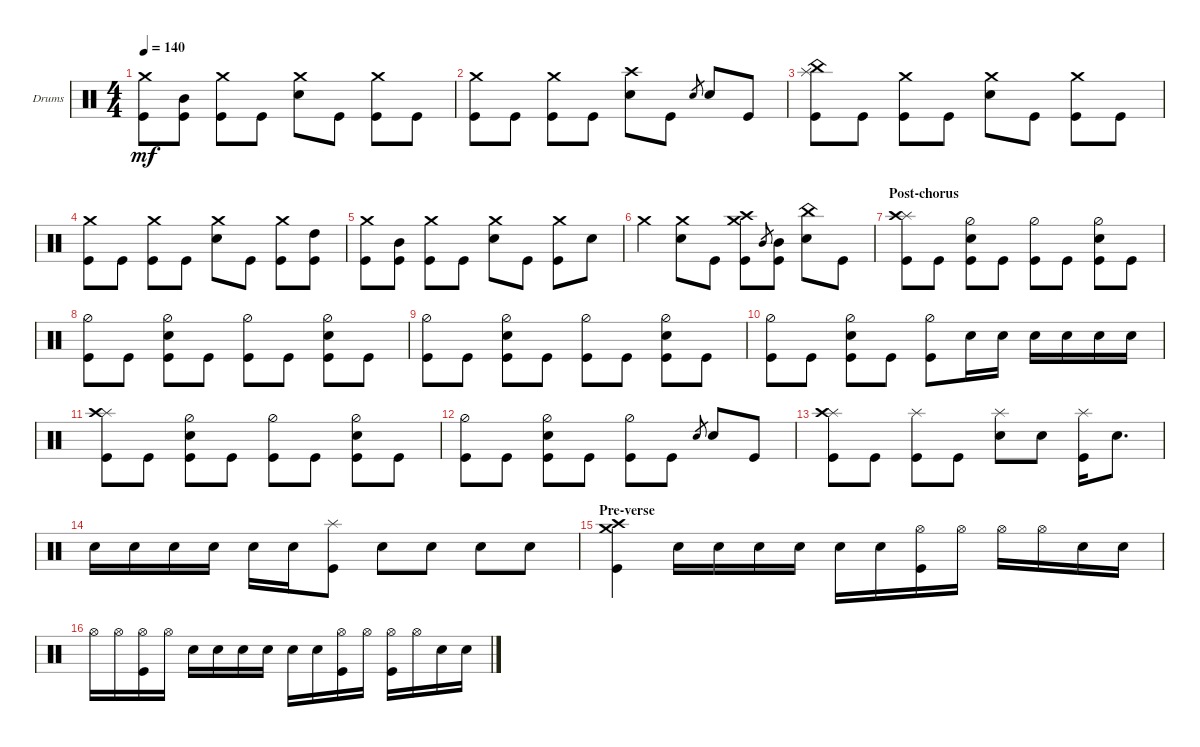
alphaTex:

\bracketExtendMode groupsimilarinstruments
\firstSystemTrackNameOrientation horizontal
\otherSystemsTrackNameOrientation horizontal
\track ("Drumkit" "Drums") {instrument percussion}
\staff {score}
\articulation defaults
\ts (4 4)
\tempo 140
\clef neutral
\ks c
("Kick (hit)" "Crash medium (hit)").8{dy mf} ("Kick (hit)" "Mid Tom (hit)").8 ("Kick (hit)" "Crash medium (hit)").8 "Kick (hit)".8 ("Snare (hit) 2" "Crash medium (hit)").8 "Kick (hit)".8 ("Kick (hit)" "Crash medium (hit)").8 "Kick (hit)".8 |
("Kick (hit)" "Crash medium (hit)").8 "Kick (hit)".8 ("Kick (hit)" "Crash medium (hit)").8 "Kick (hit)".8 ("Snare (hit) 2" "Crash high (hit)").8 "Kick (hit)".8 "Snare (hit) 2".8{gr} "Snare (hit) 2".8 "Kick (hit)".8 |
("China (hit)" "Splash (hit)" "Kick (hit)").8 "Kick (hit)".8 ("Kick (hit)" "Crash medium (hit)").8 "Kick (hit)".8 ("Snare (hit) 2" "Crash medium (hit)").8 "Kick (hit)".8 ("Kick (hit)" "Crash medium (hit)").8 "Kick (hit)".8 |
("Kick (hit)" "Crash medium (hit)").8 "Kick (hit)".8 ("Kick (hit)" "Crash medium (hit)").8 "Kick (hit)".8 ("Snare (hit) 2" "Crash medium (hit)").8 "Kick (hit)".8 ("Kick (hit)" "Crash medium (hit)").8 ("Kick (hit)" "High Tom (hit)").8 |
("Kick (hit)" "Crash medium (hit)").8 ("Kick (hit)" "Mid Tom (hit)").8 ("Kick (hit)" "Crash medium (hit)").8 "Kick (hit)".8 ("Snare (hit) 2" "Crash medium (hit)").8 "Kick (hit)".8 ("Kick (hit)" "Crash medium (hit)").8 "Snare (hit) 2".8 |
"Crash medium (hit)".4 ("Crash medium (hit)" "Snare (hit) 2").8 "Kick (hit)".8 ("Crash high (hit)" "Kick (hit)" "Crash medium (hit)").8 "Mid Tom (hit)".8{gr} ("Kick (hit)" "Mid Tom (hit)").8 ("Snare (hit) 2" "China (hit)").8 "Kick (hit)".8 |
\section ("" "Post-chorus")
("Kick (hit)" "Splash (hit)" "Crash high (hit)").8 "Kick (hit)".8 ("Hi-Hat (half)" "Snare (hit) 2" "Kick (hit)").8 "Kick (hit)".8 ("Kick (hit)" "Hi-Hat (half)").8 "Kick (hit)".8 ("Hi-Hat (half)" "Snare (hit) 2" "Kick (hit)").8 "Kick (hit)".8 |
("Kick (hit)" "Hi-Hat (half)").8 "Kick (hit)".8 ("Hi-Hat (half)" "Snare (hit) 2" "Kick (hit)").8 "Kick (hit)".8 ("Kick (hit)" "Hi-Hat (half)").8 "Kick (hit)".8 ("Hi-Hat (half)" "Snare (hit) 2" "Kick (hit)").8 "Kick (hit)".8 |
("Kick (hit)" "Hi-Hat (half)").8 "Kick (hit)".8 ("Hi-Hat (half)" "Snare (hit) 2" "Kick (hit)").8 "Kick (hit)".8 ("Kick (hit)" "Hi-Hat (half)").8 "Kick (hit)".8 ("Hi-Hat (half)" "Snare (hit) 2" "Kick (hit)").8 "Kick (hit)".8 |
("Kick (hit)" "Hi-Hat (half)").8 "Kick (hit)".8 ("Hi-Hat (half)" "Snare (hit) 2" "Kick (hit)").8 "Kick (hit)".8 ("Kick (hit)" "Hi-Hat (half)").8 "Snare (hit) 2".16 "Snare (hit) 2".16 "Snare (hit) 2".16 "Snare (hit) 2".16 "Snare (hit) 2".16 "Snare (hit) 2".16 |
("Kick (hit)" "Splash (hit)" "Crash high (hit)").8 "Kick (hit)".8 ("Hi-Hat (half)" "Snare (hit) 2" "Kick (hit)").8 "Kick (hit)".8 ("Kick (hit)" "Hi-Hat (half)").8 "Kick (hit)".8 ("Hi-Hat (half)" "Snare (hit) 2" "Kick (hit)").8 "Kick (hit)".8 |
("Kick (hit)" "Hi-Hat (half)").8 "Kick (hit)".8 ("Hi-Hat (half)" "Snare (hit) 2" "Kick (hit)").8 "Kick (hit)".8 ("Kick (hit)" "Hi-Hat (half)").8 "Kick (hit)".8 "Snare (hit) 2".8{gr} "Snare (hit) 2".8 "Kick (hit)".8 |
("Kick (hit)" "Splash (hit)" "Crash high (hit)").8 "Kick (hit)".8 ("Kick (hit)" "Splash (hit)").8 "Kick (hit)".8 ("Splash (hit)" "Snare (hit) 2").8 "Snare (hit) 2".8 ("Kick (hit)" "Splash (hit)").16 "Snare (hit) 2".8{d} |
"Snare (hit) 2".16 "Snare (hit) 2".16 "Snare (hit) 2".16 "Snare (hit) 2".16 "Snare (hit) 2".16 "Snare (hit) 2".16 ("Kick (hit)" "Splash (hit)").8 "Snare (hit) 2".8 "Snare (hit) 2".8 "Snare (hit) 2".8 "Snare (hit) 2".8 |
\section ("" "Pre-verse")
("Kick (hit)" "Crash high (hit)" "Crash medium (hit)").4 "Snare (hit) 2".16 "Snare (hit) 2".16 "Snare (hit) 2".16 "Snare (hit) 2".16 "Snare (hit) 2".16 "Snare (hit) 2".16 ("Kick (hit)" "Hi-Hat (open)").16 "Hi-Hat (open)".16 "Hi-Hat (open)".16 "Hi-Hat (open)".16 "Snare (hit) 2".16 "Snare (hit) 2".16 |
"Hi-Hat (open)".16 "Hi-Hat (open)".16 ("Kick (hit)" "Hi-Hat (open)").16 "Hi-Hat (open)".16 "Snare (hit) 2".16 "Snare (hit) 2".16 "Snare (hit) 2".16 "Snare (hit) 2".16 "Snare (hit) 2".16 "Snare (hit) 2".16 ("Kick (hit)" "Hi-Hat (open)").16 "Hi-Hat (open)".16 ("Hi-Hat (open)" "Kick (hit)").16 "Hi-Hat (open)".16 "Snare (hit) 2".16 "Snare (hit) 2".16
